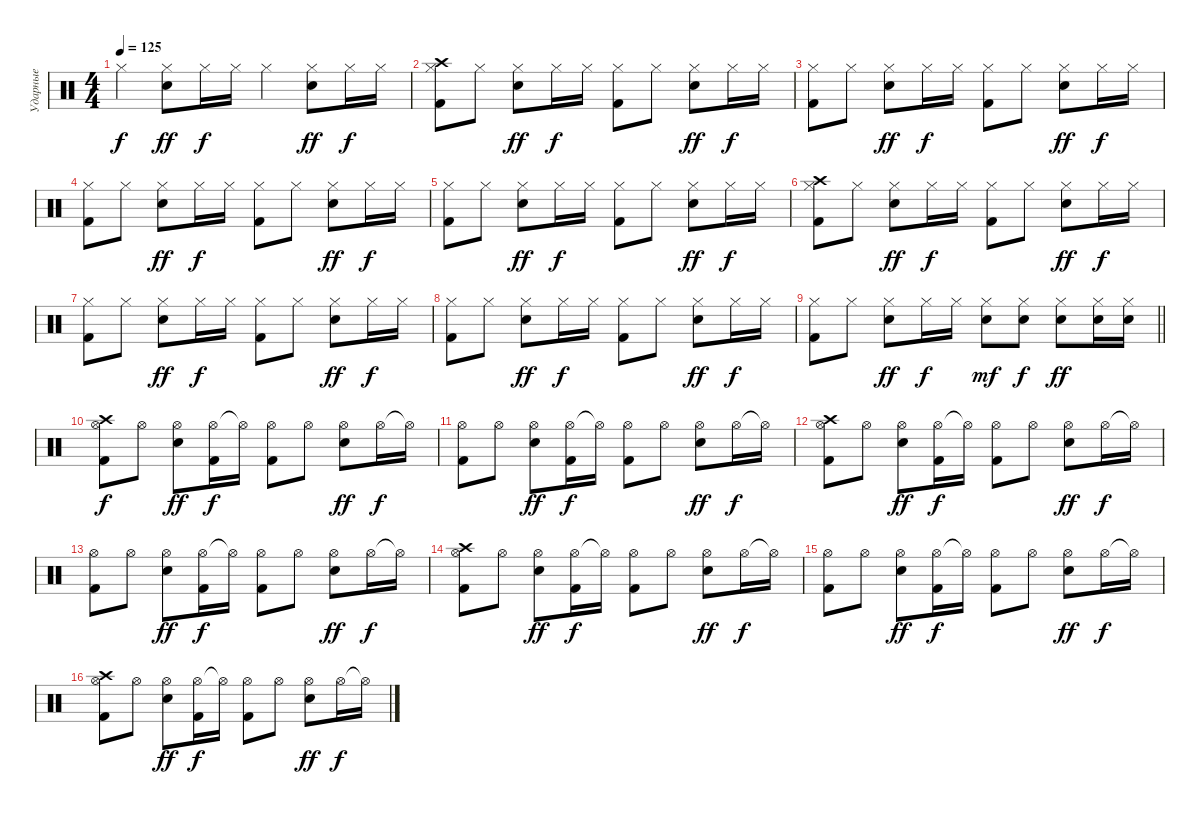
\track ("Ударные" "Ударные") {instrument percussion}
\staff {score}
\articulation defaults
\ts (4 4)
\tempo 125
\clef neutral
\ks c "Hi-Hat (closed)".4{dy f}
("Hi-Hat (closed)" "Electric Snare (hit)").8{dy ff} "Hi-Hat (closed)".16{dy f} "Hi-Hat (closed)".16 "Hi-Hat (closed)".4 ("Hi-Hat (closed)" "Electric Snare (hit)").8{dy ff} "Hi-Hat (closed)".16{dy f} "Hi-Hat (closed)".16 |
("Crash high (hit)" "Hi-Hat (closed)" "Kick (hit) 2").8 "Hi-Hat (closed)".8 ("Hi-Hat (closed)" "Electric Snare (hit)").8{dy ff} "Hi-Hat (closed)".16{dy f} "Hi-Hat (closed)".16 ("Hi-Hat (closed)" "Kick (hit) 2").8 "Hi-Hat (closed)".8 ("Hi-Hat (closed)" "Electric Snare (hit)").8{dy ff} "Hi-Hat (closed)".16{dy f} "Hi-Hat (closed)".16 |
("Hi-Hat (closed)" "Kick (hit) 2").8 "Hi-Hat (closed)".8 ("Hi-Hat (closed)" "Electric Snare (hit)").8{dy ff} "Hi-Hat (closed)".16{dy f} "Hi-Hat (closed)".16 ("Hi-Hat (closed)" "Kick (hit) 2").8 "Hi-Hat (closed)".8 ("Hi-Hat (closed)" "Electric Snare (hit)").8{dy ff} "Hi-Hat (closed)".16{dy f} "Hi-Hat (closed)".16 |
("Hi-Hat (closed)" "Kick (hit) 2").8 "Hi-Hat (closed)".8 ("Hi-Hat (closed)" "Electric Snare (hit)").8{dy ff} "Hi-Hat (closed)".16{dy f} "Hi-Hat (closed)".16 ("Hi-Hat (closed)" "Kick (hit) 2").8 "Hi-Hat (closed)".8 ("Hi-Hat (closed)" "Electric Snare (hit)").8{dy ff} "Hi-Hat (closed)".16{dy f} "Hi-Hat (closed)".16 |
("Hi-Hat (closed)" "Kick (hit) 2").8 "Hi-Hat (closed)".8 ("Hi-Hat (closed)" "Electric Snare (hit)").8{dy ff} "Hi-Hat (closed)".16{dy f} "Hi-Hat (closed)".16 ("Hi-Hat (closed)" "Kick (hit) 2").8 "Hi-Hat (closed)".8 ("Hi-Hat (closed)" "Electric Snare (hit)").8{dy ff} "Hi-Hat (closed)".16{dy f} "Hi-Hat (closed)".16 |
("Crash high (hit)" "Hi-Hat (closed)" "Kick (hit) 2").8 "Hi-Hat (closed)".8 ("Hi-Hat (closed)" "Electric Snare (hit)").8{dy ff} "Hi-Hat (closed)".16{dy f} "Hi-Hat (closed)".16 ("Hi-Hat (closed)" "Kick (hit) 2").8 "Hi-Hat (closed)".8 ("Hi-Hat (closed)" "Electric Snare (hit)").8{dy ff} "Hi-Hat (closed)".16{dy f} "Hi-Hat (closed)".16 |
("Hi-Hat (closed)" "Kick (hit) 2").8 "Hi-Hat (closed)".8 ("Hi-Hat (closed)" "Electric Snare (hit)").8{dy ff} "Hi-Hat (closed)".16{dy f} "Hi-Hat (closed)".16 ("Hi-Hat (closed)" "Kick (hit) 2").8 "Hi-Hat (closed)".8 ("Hi-Hat (closed)" "Electric Snare (hit)").8{dy ff} "Hi-Hat (closed)".16{dy f} "Hi-Hat (closed)".16 |
("Hi-Hat (closed)" "Kick (hit) 2").8 "Hi-Hat (closed)".8 ("Hi-Hat (closed)" "Electric Snare (hit)").8{dy ff} "Hi-Hat (closed)".16{dy f} "Hi-Hat (closed)".16 ("Hi-Hat (closed)" "Kick (hit) 2").8 "Hi-Hat (closed)".8 ("Hi-Hat (closed)" "Electric Snare (hit)").8{dy ff} "Hi-Hat (closed)".16{dy f} "Hi-Hat (closed)".16 |
\barLineRight lightlight
("Hi-Hat (closed)" "Kick (hit) 2").8 "Hi-Hat (closed)".8 ("Hi-Hat (closed)" "Electric Snare (hit)").8{dy ff} "Hi-Hat (closed)".16{dy f} "Hi-Hat (closed)".16 ("Hi-Hat (closed)" "Electric Snare (hit)").8{dy mf} ("Hi-Hat (closed)" "Electric Snare (hit)").8{dy f} ("Hi-Hat (closed)" "Electric Snare (hit)").8{dy ff} ("Hi-Hat (closed)" "Electric Snare (hit)").16 ("Hi-Hat (closed)" "Electric Snare (hit)").16 |
("Crash high (hit)" "Hi-Hat (open)" "Kick (hit) 2").8{dy f} "Hi-Hat (open)".8 ("Hi-Hat (open)" "Electric Snare (hit)").8{dy ff} ("Hi-Hat (open)" "Kick (hit) 2").16{dy f} "Hi-Hat (open)"{t}.16 ("Hi-Hat (open)" "Kick (hit) 2").8 "Hi-Hat (open)".8 ("Hi-Hat (open)" "Electric Snare (hit)").8{dy ff} "Hi-Hat (open)".16{dy f} "Hi-Hat (open)"{t}.16 |
("Hi-Hat (open)" "Kick (hit) 2").8 "Hi-Hat (open)".8 ("Hi-Hat (open)" "Electric Snare (hit)").8{dy ff} ("Hi-Hat (open)" "Kick (hit) 2").16{dy f} "Hi-Hat (open)"{t}.16 ("Hi-Hat (open)" "Kick (hit) 2").8 "Hi-Hat (open)".8 ("Hi-Hat (open)" "Electric Snare (hit)").8{dy ff} "Hi-Hat (open)".16{dy f} "Hi-Hat (open)"{t}.16 |
("Crash high (hit)" "Hi-Hat (open)" "Kick (hit) 2").8 "Hi-Hat (open)".8 ("Hi-Hat (open)" "Electric Snare (hit)").8{dy ff} ("Hi-Hat (open)" "Kick (hit) 2").16{dy f} "Hi-Hat (open)"{t}.16 ("Hi-Hat (open)" "Kick (hit) 2").8 "Hi-Hat (open)".8 ("Hi-Hat (open)" "Electric Snare (hit)").8{dy ff} "Hi-Hat (open)".16{dy f} "Hi-Hat (open)"{t}.16 |
("Hi-Hat (open)" "Kick (hit) 2").8 "Hi-Hat (open)".8 ("Hi-Hat (open)" "Electric Snare (hit)").8{dy ff} ("Hi-Hat (open)" "Kick (hit) 2").16{dy f} "Hi-Hat (open)"{t}.16 ("Hi-Hat (open)" "Kick (hit) 2").8 "Hi-Hat (open)".8 ("Hi-Hat (open)" "Electric Snare (hit)").8{dy ff} "Hi-Hat (open)".16{dy f} "Hi-Hat (open)"{t}.16 |
("Crash high (hit)" "Hi-Hat (open)" "Kick (hit) 2").8 "Hi-Hat (open)".8 ("Hi-Hat (open)" "Electric Snare (hit)").8{dy ff} ("Hi-Hat (open)" "Kick (hit) 2").16{dy f} "Hi-Hat (open)"{t}.16 ("Hi-Hat (open)" "Kick (hit) 2").8 "Hi-Hat (open)".8 ("Hi-Hat (open)" "Electric Snare (hit)").8{dy ff} "Hi-Hat (open)".16{dy f} "Hi-Hat (open)"{t}.16 |
("Hi-Hat (open)" "Kick (hit) 2").8 "Hi-Hat (open)".8 ("Hi-Hat (open)" "Electric Snare (hit)").8{dy ff} ("Hi-Hat (open)" "Kick (hit) 2").16{dy f} "Hi-Hat (open)"{t}.16 ("Hi-Hat (open)" "Kick (hit) 2").8 "Hi-Hat (open)".8 ("Hi-Hat (open)" "Electric Snare (hit)").8{dy ff} "Hi-Hat (open)".16{dy f} "Hi-Hat (open)"{t}.16 |
("Crash high (hit)" "Hi-Hat (open)" "Kick (hit) 2").8 "Hi-Hat (open)".8 ("Hi-Hat (open)" "Electric Snare (hit)").8{dy ff} ("Hi-Hat (open)" "Kick (hit) 2").16{dy f} "Hi-Hat (open)"{t}.16 ("Hi-Hat (open)" "Kick (hit) 2").8 "Hi-Hat (open)".8 ("Hi-Hat (open)" "Electric Snare (hit)").8{dy ff} "Hi-Hat (open)".16{dy f} "Hi-Hat (open)"{t}.16
